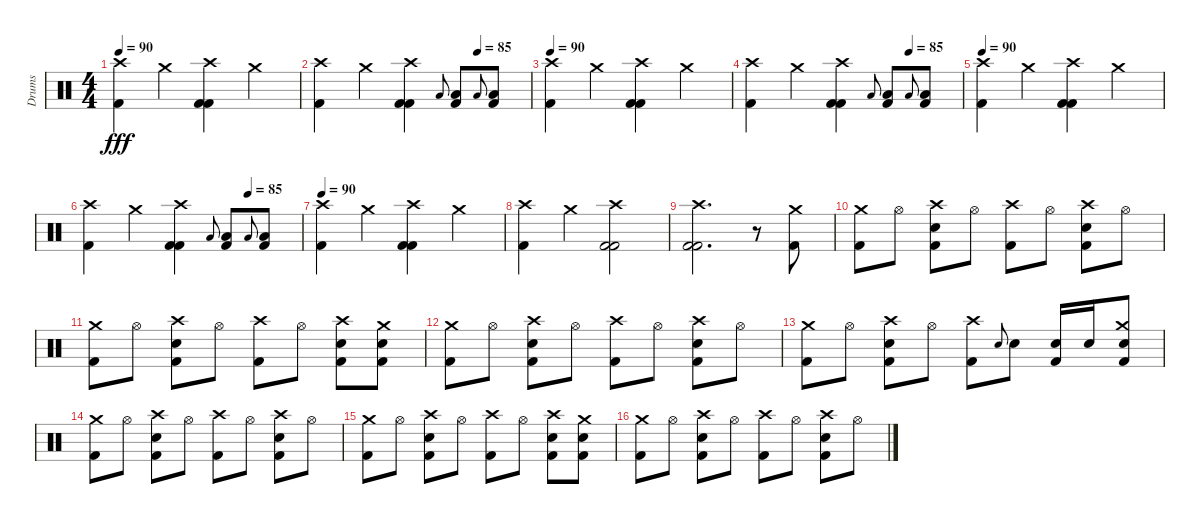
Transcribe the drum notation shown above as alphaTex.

\track ("Drums" "Drums") {instrument percussion}
\staff {score}
\articulation defaults
\ts (4 4)
\tempo 90
\clef neutral
\ks c
("Crash high (hit)" "Kick (hit) 2").4{dy fff} "Crash medium (hit)".4 ("Crash high (hit)" "Kick (hit) 2" "Kick (hit) 2").4 "Crash medium (hit)".4 |
\tempo (85 0.75)
("Crash high (hit)" "Kick (hit) 2").4 "Crash medium (hit)".4 ("Crash high (hit)" "Kick (hit) 2" "Kick (hit) 2").4 "Low Floor Tom (hit)".8{gr onbeat} ("Low Floor Tom (hit)" "Kick (hit) 2").8 "Low Floor Tom (hit)".8{gr onbeat} ("Low Floor Tom (hit)" "Kick (hit) 2").8 |
\tempo 90
("Crash high (hit)" "Kick (hit) 2").4 "Crash medium (hit)".4 ("Crash high (hit)" "Kick (hit) 2" "Kick (hit) 2").4 "Crash medium (hit)".4 |
\tempo (85 0.75)
("Crash high (hit)" "Kick (hit) 2").4 "Crash medium (hit)".4 ("Crash high (hit)" "Kick (hit) 2" "Kick (hit) 2").4 "Low Floor Tom (hit)".8{gr onbeat} ("Low Floor Tom (hit)" "Kick (hit) 2").8 "Low Floor Tom (hit)".8{gr onbeat} ("Low Floor Tom (hit)" "Kick (hit) 2").8 |
\tempo 90
("Crash high (hit)" "Kick (hit) 2").4 "Crash medium (hit)".4 ("Crash high (hit)" "Kick (hit) 2" "Kick (hit) 2").4 "Crash medium (hit)".4 |
\tempo (85 0.75)
("Crash high (hit)" "Kick (hit) 2").4 "Crash medium (hit)".4 ("Crash high (hit)" "Kick (hit) 2" "Kick (hit) 2").4 "Low Floor Tom (hit)".8{gr onbeat} ("Low Floor Tom (hit)" "Kick (hit) 2").8 "Low Floor Tom (hit)".8{gr onbeat} ("Low Floor Tom (hit)" "Kick (hit) 2").8 |
\tempo 90
("Crash high (hit)" "Kick (hit) 2").4 "Crash medium (hit)".4 ("Crash high (hit)" "Kick (hit) 2" "Kick (hit) 2").4 "Crash medium (hit)".4 |
("Crash high (hit)" "Kick (hit) 2").4 "Crash medium (hit)".4 ("Crash high (hit)" "Kick (hit) 2" "Kick (hit) 2").2 |
("Crash high (hit)" "Kick (hit) 2" "Kick (hit) 2").2{d} r.8 ("Crash medium (hit)" "Kick (hit) 2").8 |
("Crash medium (hit)" "Kick (hit) 2").8 "Hi-Hat (open)".8 ("Crash high (hit)" "Snare (hit) 2" "Kick (hit) 2").8 "Hi-Hat (open)".8 ("Crash high (hit)" "Kick (hit) 2").8 "Hi-Hat (open)".8 ("Crash high (hit)" "Snare (hit) 2" "Kick (hit) 2").8 "Hi-Hat (open)".8 |
("Crash medium (hit)" "Kick (hit) 2").8 "Hi-Hat (open)".8 ("Crash high (hit)" "Snare (hit) 2" "Kick (hit) 2").8 "Hi-Hat (open)".8 ("Crash high (hit)" "Kick (hit) 2").8 "Hi-Hat (open)".8 ("Crash high (hit)" "Snare (hit) 2" "Kick (hit) 2").8 ("Crash medium (hit)" "Snare (hit) 2" "Kick (hit) 2").8 |
("Crash medium (hit)" "Kick (hit) 2").8 "Hi-Hat (open)".8 ("Crash high (hit)" "Snare (hit) 2" "Kick (hit) 2").8 "Hi-Hat (open)".8 ("Crash high (hit)" "Kick (hit) 2").8 "Hi-Hat (open)".8 ("Crash high (hit)" "Snare (hit) 2" "Kick (hit) 2").8 "Hi-Hat (open)".8 |
("Crash medium (hit)" "Kick (hit) 2").8 "Hi-Hat (open)".8 ("Crash high (hit)" "Snare (hit) 2" "Kick (hit) 2").8 "Hi-Hat (open)".8 ("Crash high (hit)" "Kick (hit) 2").8 "Electric Snare (hit)".8{gr onbeat} "Electric Snare (hit)".8 ("Electric Snare (hit)" "Kick (hit) 2").16 "Electric Snare (hit)".16 ("Crash medium (hit)" "Snare (hit) 2" "Kick (hit) 2").8 |
("Crash medium (hit)" "Kick (hit) 2").8 "Hi-Hat (open)".8 ("Crash high (hit)" "Snare (hit) 2" "Kick (hit) 2").8 "Hi-Hat (open)".8 ("Crash high (hit)" "Kick (hit) 2").8 "Hi-Hat (open)".8 ("Crash high (hit)" "Snare (hit) 2" "Kick (hit) 2").8 "Hi-Hat (open)".8 |
("Crash medium (hit)" "Kick (hit) 2").8 "Hi-Hat (open)".8 ("Crash high (hit)" "Snare (hit) 2" "Kick (hit) 2").8 "Hi-Hat (open)".8 ("Crash high (hit)" "Kick (hit) 2").8 "Hi-Hat (open)".8 ("Crash high (hit)" "Snare (hit) 2" "Kick (hit) 2").8 ("Crash medium (hit)" "Snare (hit) 2" "Kick (hit) 2").8 |
("Crash medium (hit)" "Kick (hit) 2").8 "Hi-Hat (open)".8 ("Crash high (hit)" "Snare (hit) 2" "Kick (hit) 2").8 "Hi-Hat (open)".8 ("Crash high (hit)" "Kick (hit) 2").8 "Hi-Hat (open)".8 ("Crash high (hit)" "Snare (hit) 2" "Kick (hit) 2").8 "Hi-Hat (open)".8
